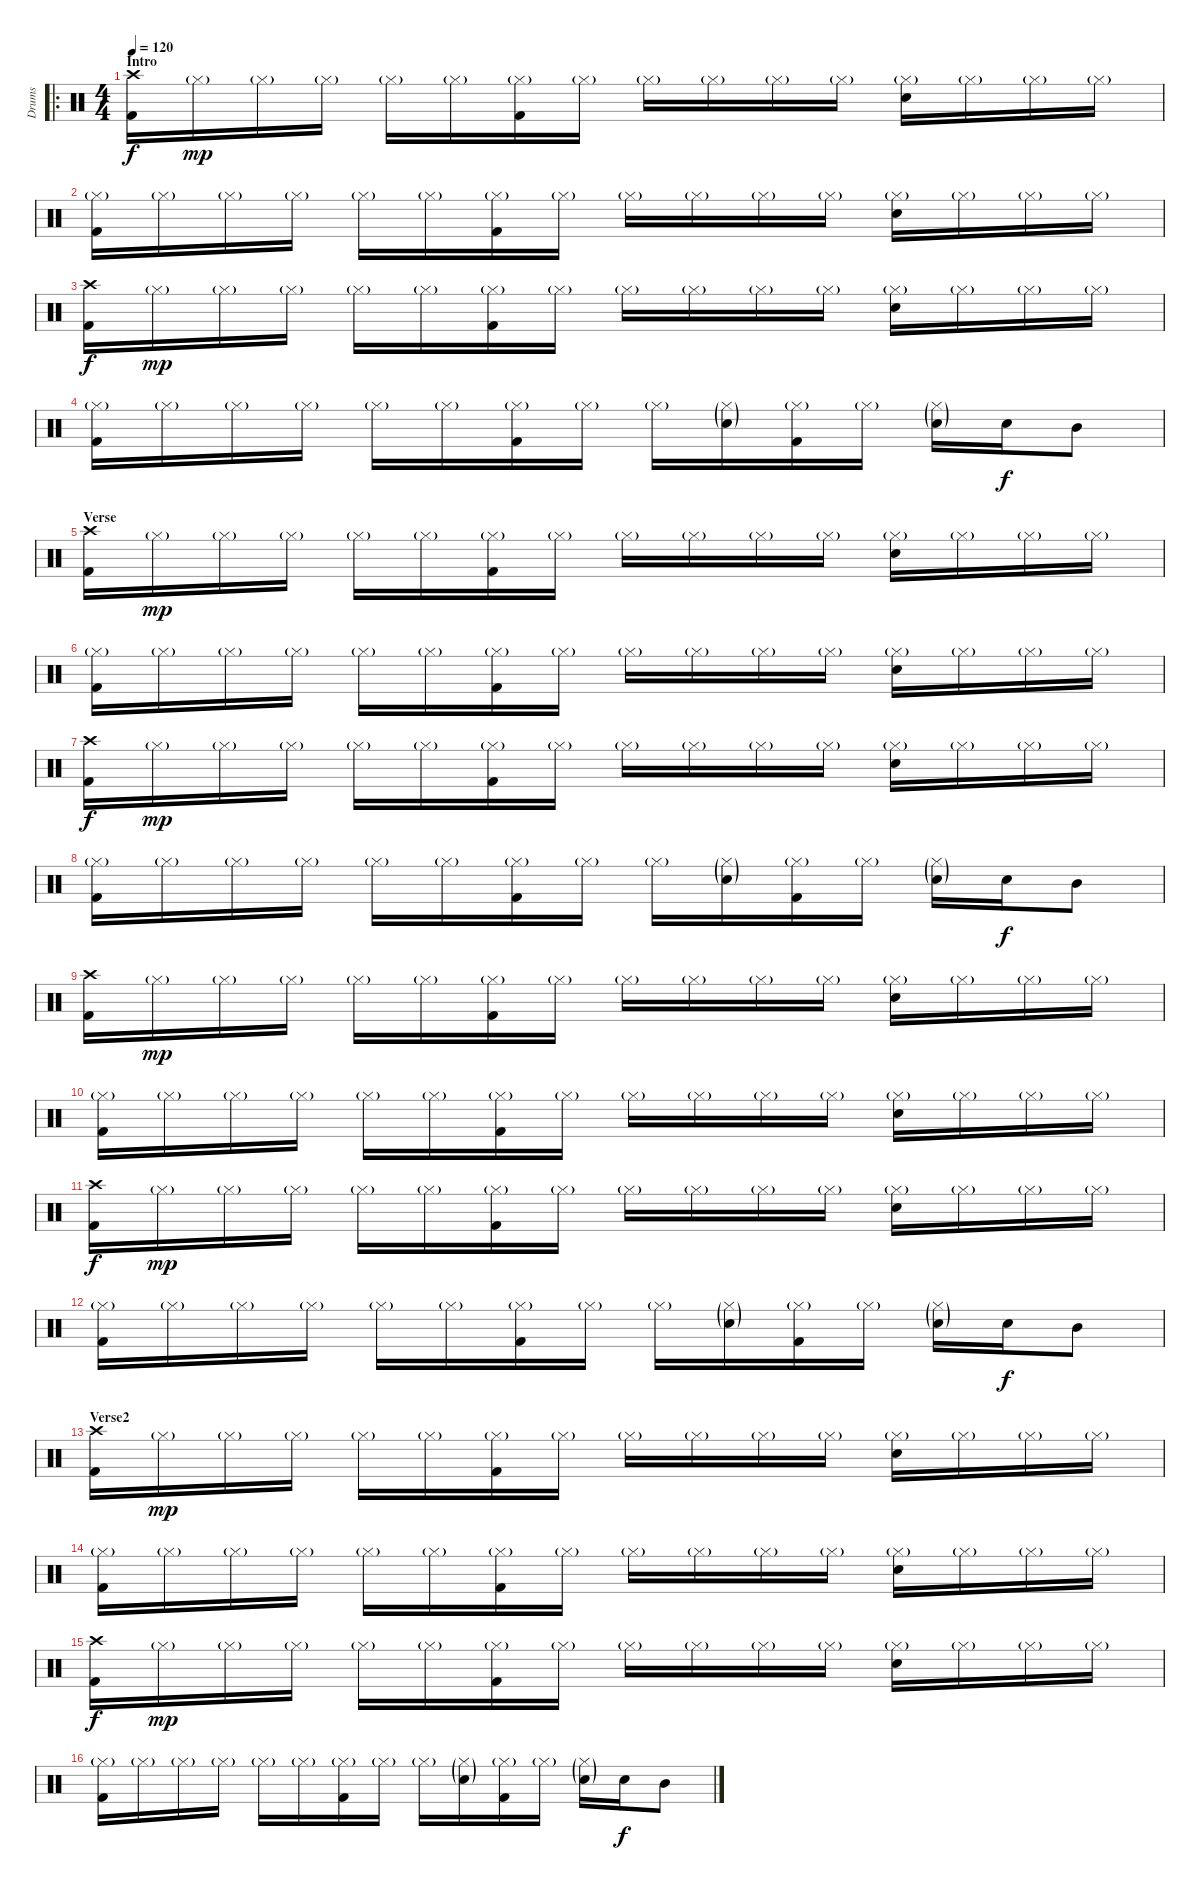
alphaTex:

\track ("Drums" "Drums") {instrument percussion}
\staff {score}
\articulation defaults
\ro
\ts (4 4)
\section ("" "Intro")
\tempo 120
\clef neutral
\ks c
("Crash high (hit)" "Kick (hit) 2").16{dy f} "Hi-Hat (closed)"{g}.16{dy mp} "Hi-Hat (closed)"{g}.16 "Hi-Hat (closed)"{g}.16 "Hi-Hat (closed)"{g}.16 "Hi-Hat (closed)"{g}.16 ("Hi-Hat (closed)"{g} "Kick (hit) 2").16 "Hi-Hat (closed)"{g}.16 "Hi-Hat (closed)"{g}.16 "Hi-Hat (closed)"{g}.16 "Hi-Hat (closed)"{g}.16 "Hi-Hat (closed)"{g}.16 ("Hi-Hat (closed)"{g} "Electric Snare (hit)").16 "Hi-Hat (closed)"{g}.16 "Hi-Hat (closed)"{g}.16 "Hi-Hat (closed)"{g}.16 |
("Hi-Hat (closed)"{g} "Kick (hit) 2").16 "Hi-Hat (closed)"{g}.16 "Hi-Hat (closed)"{g}.16 "Hi-Hat (closed)"{g}.16 "Hi-Hat (closed)"{g}.16 "Hi-Hat (closed)"{g}.16 ("Hi-Hat (closed)"{g} "Kick (hit) 2").16 "Hi-Hat (closed)"{g}.16 "Hi-Hat (closed)"{g}.16 "Hi-Hat (closed)"{g}.16 "Hi-Hat (closed)"{g}.16 "Hi-Hat (closed)"{g}.16 ("Hi-Hat (closed)"{g} "Electric Snare (hit)").16 "Hi-Hat (closed)"{g}.16 "Hi-Hat (closed)"{g}.16 "Hi-Hat (closed)"{g}.16 |
("Crash high (hit)" "Kick (hit) 2").16{dy f} "Hi-Hat (closed)"{g}.16{dy mp} "Hi-Hat (closed)"{g}.16 "Hi-Hat (closed)"{g}.16 "Hi-Hat (closed)"{g}.16 "Hi-Hat (closed)"{g}.16 ("Hi-Hat (closed)"{g} "Kick (hit) 2").16 "Hi-Hat (closed)"{g}.16 "Hi-Hat (closed)"{g}.16 "Hi-Hat (closed)"{g}.16 "Hi-Hat (closed)"{g}.16 "Hi-Hat (closed)"{g}.16 ("Hi-Hat (closed)"{g} "Electric Snare (hit)").16 "Hi-Hat (closed)"{g}.16 "Hi-Hat (closed)"{g}.16 "Hi-Hat (closed)"{g}.16 |
("Hi-Hat (closed)"{g} "Kick (hit) 2").16 "Hi-Hat (closed)"{g}.16 "Hi-Hat (closed)"{g}.16 "Hi-Hat (closed)"{g}.16 "Hi-Hat (closed)"{g}.16 "Hi-Hat (closed)"{g}.16 ("Hi-Hat (closed)"{g} "Kick (hit) 2").16 "Hi-Hat (closed)"{g}.16 "Hi-Hat (closed)"{g}.16 ("Hi-Hat (closed)"{g} "Electric Snare (hit)"{g}).16 ("Hi-Hat (closed)"{g} "Kick (hit) 2").16 "Hi-Hat (closed)"{g}.16 ("Hi-Hat (closed)"{g} "Electric Snare (hit)"{g}).16 "Electric Snare (hit)".16{dy f} "Mid Tom (hit)".8 |
\section ("" "Verse")
("Crash high (hit)" "Kick (hit) 2").16 "Hi-Hat (closed)"{g}.16{dy mp} "Hi-Hat (closed)"{g}.16 "Hi-Hat (closed)"{g}.16 "Hi-Hat (closed)"{g}.16 "Hi-Hat (closed)"{g}.16 ("Hi-Hat (closed)"{g} "Kick (hit) 2").16 "Hi-Hat (closed)"{g}.16 "Hi-Hat (closed)"{g}.16 "Hi-Hat (closed)"{g}.16 "Hi-Hat (closed)"{g}.16 "Hi-Hat (closed)"{g}.16 ("Hi-Hat (closed)"{g} "Electric Snare (hit)").16 "Hi-Hat (closed)"{g}.16 "Hi-Hat (closed)"{g}.16 "Hi-Hat (closed)"{g}.16 |
("Hi-Hat (closed)"{g} "Kick (hit) 2").16 "Hi-Hat (closed)"{g}.16 "Hi-Hat (closed)"{g}.16 "Hi-Hat (closed)"{g}.16 "Hi-Hat (closed)"{g}.16 "Hi-Hat (closed)"{g}.16 ("Hi-Hat (closed)"{g} "Kick (hit) 2").16 "Hi-Hat (closed)"{g}.16 "Hi-Hat (closed)"{g}.16 "Hi-Hat (closed)"{g}.16 "Hi-Hat (closed)"{g}.16 "Hi-Hat (closed)"{g}.16 ("Hi-Hat (closed)"{g} "Electric Snare (hit)").16 "Hi-Hat (closed)"{g}.16 "Hi-Hat (closed)"{g}.16 "Hi-Hat (closed)"{g}.16 |
("Crash high (hit)" "Kick (hit) 2").16{dy f} "Hi-Hat (closed)"{g}.16{dy mp} "Hi-Hat (closed)"{g}.16 "Hi-Hat (closed)"{g}.16 "Hi-Hat (closed)"{g}.16 "Hi-Hat (closed)"{g}.16 ("Hi-Hat (closed)"{g} "Kick (hit) 2").16 "Hi-Hat (closed)"{g}.16 "Hi-Hat (closed)"{g}.16 "Hi-Hat (closed)"{g}.16 "Hi-Hat (closed)"{g}.16 "Hi-Hat (closed)"{g}.16 ("Hi-Hat (closed)"{g} "Electric Snare (hit)").16 "Hi-Hat (closed)"{g}.16 "Hi-Hat (closed)"{g}.16 "Hi-Hat (closed)"{g}.16 |
("Hi-Hat (closed)"{g} "Kick (hit) 2").16 "Hi-Hat (closed)"{g}.16 "Hi-Hat (closed)"{g}.16 "Hi-Hat (closed)"{g}.16 "Hi-Hat (closed)"{g}.16 "Hi-Hat (closed)"{g}.16 ("Hi-Hat (closed)"{g} "Kick (hit) 2").16 "Hi-Hat (closed)"{g}.16 "Hi-Hat (closed)"{g}.16 ("Hi-Hat (closed)"{g} "Electric Snare (hit)"{g}).16 ("Hi-Hat (closed)"{g} "Kick (hit) 2").16 "Hi-Hat (closed)"{g}.16 ("Hi-Hat (closed)"{g} "Electric Snare (hit)"{g}).16 "Electric Snare (hit)".16{dy f} "Mid Tom (hit)".8 |
("Crash high (hit)" "Kick (hit) 2").16 "Hi-Hat (closed)"{g}.16{dy mp} "Hi-Hat (closed)"{g}.16 "Hi-Hat (closed)"{g}.16 "Hi-Hat (closed)"{g}.16 "Hi-Hat (closed)"{g}.16 ("Hi-Hat (closed)"{g} "Kick (hit) 2").16 "Hi-Hat (closed)"{g}.16 "Hi-Hat (closed)"{g}.16 "Hi-Hat (closed)"{g}.16 "Hi-Hat (closed)"{g}.16 "Hi-Hat (closed)"{g}.16 ("Hi-Hat (closed)"{g} "Electric Snare (hit)").16 "Hi-Hat (closed)"{g}.16 "Hi-Hat (closed)"{g}.16 "Hi-Hat (closed)"{g}.16 |
("Hi-Hat (closed)"{g} "Kick (hit) 2").16 "Hi-Hat (closed)"{g}.16 "Hi-Hat (closed)"{g}.16 "Hi-Hat (closed)"{g}.16 "Hi-Hat (closed)"{g}.16 "Hi-Hat (closed)"{g}.16 ("Hi-Hat (closed)"{g} "Kick (hit) 2").16 "Hi-Hat (closed)"{g}.16 "Hi-Hat (closed)"{g}.16 "Hi-Hat (closed)"{g}.16 "Hi-Hat (closed)"{g}.16 "Hi-Hat (closed)"{g}.16 ("Hi-Hat (closed)"{g} "Electric Snare (hit)").16 "Hi-Hat (closed)"{g}.16 "Hi-Hat (closed)"{g}.16 "Hi-Hat (closed)"{g}.16 |
("Crash high (hit)" "Kick (hit) 2").16{dy f} "Hi-Hat (closed)"{g}.16{dy mp} "Hi-Hat (closed)"{g}.16 "Hi-Hat (closed)"{g}.16 "Hi-Hat (closed)"{g}.16 "Hi-Hat (closed)"{g}.16 ("Hi-Hat (closed)"{g} "Kick (hit) 2").16 "Hi-Hat (closed)"{g}.16 "Hi-Hat (closed)"{g}.16 "Hi-Hat (closed)"{g}.16 "Hi-Hat (closed)"{g}.16 "Hi-Hat (closed)"{g}.16 ("Hi-Hat (closed)"{g} "Electric Snare (hit)").16 "Hi-Hat (closed)"{g}.16 "Hi-Hat (closed)"{g}.16 "Hi-Hat (closed)"{g}.16 |
("Hi-Hat (closed)"{g} "Kick (hit) 2").16 "Hi-Hat (closed)"{g}.16 "Hi-Hat (closed)"{g}.16 "Hi-Hat (closed)"{g}.16 "Hi-Hat (closed)"{g}.16 "Hi-Hat (closed)"{g}.16 ("Hi-Hat (closed)"{g} "Kick (hit) 2").16 "Hi-Hat (closed)"{g}.16 "Hi-Hat (closed)"{g}.16 ("Hi-Hat (closed)"{g} "Electric Snare (hit)"{g}).16 ("Hi-Hat (closed)"{g} "Kick (hit) 2").16 "Hi-Hat (closed)"{g}.16 ("Hi-Hat (closed)"{g} "Electric Snare (hit)"{g}).16 "Electric Snare (hit)".16{dy f} "Mid Tom (hit)".8 |
\section ("" "Verse2")
("Crash high (hit)" "Kick (hit) 2").16 "Hi-Hat (closed)"{g}.16{dy mp} "Hi-Hat (closed)"{g}.16 "Hi-Hat (closed)"{g}.16 "Hi-Hat (closed)"{g}.16 "Hi-Hat (closed)"{g}.16 ("Hi-Hat (closed)"{g} "Kick (hit) 2").16 "Hi-Hat (closed)"{g}.16 "Hi-Hat (closed)"{g}.16 "Hi-Hat (closed)"{g}.16 "Hi-Hat (closed)"{g}.16 "Hi-Hat (closed)"{g}.16 ("Hi-Hat (closed)"{g} "Electric Snare (hit)").16 "Hi-Hat (closed)"{g}.16 "Hi-Hat (closed)"{g}.16 "Hi-Hat (closed)"{g}.16 |
("Hi-Hat (closed)"{g} "Kick (hit) 2").16 "Hi-Hat (closed)"{g}.16 "Hi-Hat (closed)"{g}.16 "Hi-Hat (closed)"{g}.16 "Hi-Hat (closed)"{g}.16 "Hi-Hat (closed)"{g}.16 ("Hi-Hat (closed)"{g} "Kick (hit) 2").16 "Hi-Hat (closed)"{g}.16 "Hi-Hat (closed)"{g}.16 "Hi-Hat (closed)"{g}.16 "Hi-Hat (closed)"{g}.16 "Hi-Hat (closed)"{g}.16 ("Hi-Hat (closed)"{g} "Electric Snare (hit)").16 "Hi-Hat (closed)"{g}.16 "Hi-Hat (closed)"{g}.16 "Hi-Hat (closed)"{g}.16 |
("Crash high (hit)" "Kick (hit) 2").16{dy f} "Hi-Hat (closed)"{g}.16{dy mp} "Hi-Hat (closed)"{g}.16 "Hi-Hat (closed)"{g}.16 "Hi-Hat (closed)"{g}.16 "Hi-Hat (closed)"{g}.16 ("Hi-Hat (closed)"{g} "Kick (hit) 2").16 "Hi-Hat (closed)"{g}.16 "Hi-Hat (closed)"{g}.16 "Hi-Hat (closed)"{g}.16 "Hi-Hat (closed)"{g}.16 "Hi-Hat (closed)"{g}.16 ("Hi-Hat (closed)"{g} "Electric Snare (hit)").16 "Hi-Hat (closed)"{g}.16 "Hi-Hat (closed)"{g}.16 "Hi-Hat (closed)"{g}.16 |
("Hi-Hat (closed)"{g} "Kick (hit) 2").16 "Hi-Hat (closed)"{g}.16 "Hi-Hat (closed)"{g}.16 "Hi-Hat (closed)"{g}.16 "Hi-Hat (closed)"{g}.16 "Hi-Hat (closed)"{g}.16 ("Hi-Hat (closed)"{g} "Kick (hit) 2").16 "Hi-Hat (closed)"{g}.16 "Hi-Hat (closed)"{g}.16 ("Hi-Hat (closed)"{g} "Electric Snare (hit)"{g}).16 ("Hi-Hat (closed)"{g} "Kick (hit) 2").16 "Hi-Hat (closed)"{g}.16 ("Hi-Hat (closed)"{g} "Electric Snare (hit)"{g}).16 "Electric Snare (hit)".16{dy f} "Mid Tom (hit)".8
